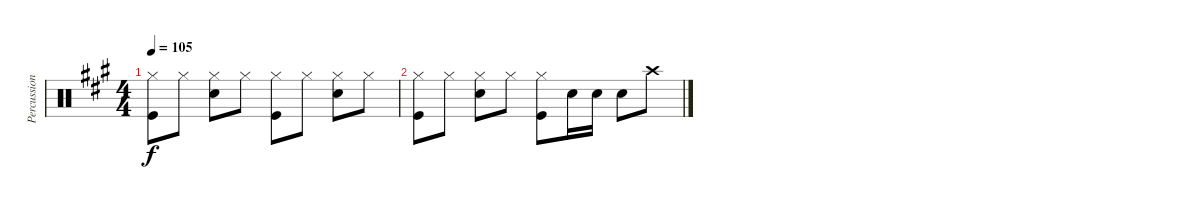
\track ("Percussion" "Percussion") {instrument percussion}
\staff {score}
\articulation defaults
\ts (4 4)
\tempo 105
\clef neutral
\ks a
("Hi-Hat (closed)" "Kick (hit)").8{dy f} "Hi-Hat (closed)".8 ("Hi-Hat (closed)" "Snare (hit) 2").8 "Hi-Hat (closed)".8 ("Hi-Hat (closed)" "Kick (hit)").8 "Hi-Hat (closed)".8 ("Hi-Hat (closed)" "Snare (hit) 2").8 "Hi-Hat (closed)".8 |
("Hi-Hat (closed)" "Kick (hit)").8 "Hi-Hat (closed)".8 ("Hi-Hat (closed)" "Snare (hit) 2").8 "Hi-Hat (closed)".8 ("Hi-Hat (closed)" "Kick (hit)").8 "Snare (hit) 2".16 "Snare (hit) 2".16 "Snare (hit) 2".8 "Crash high (hit)".8
